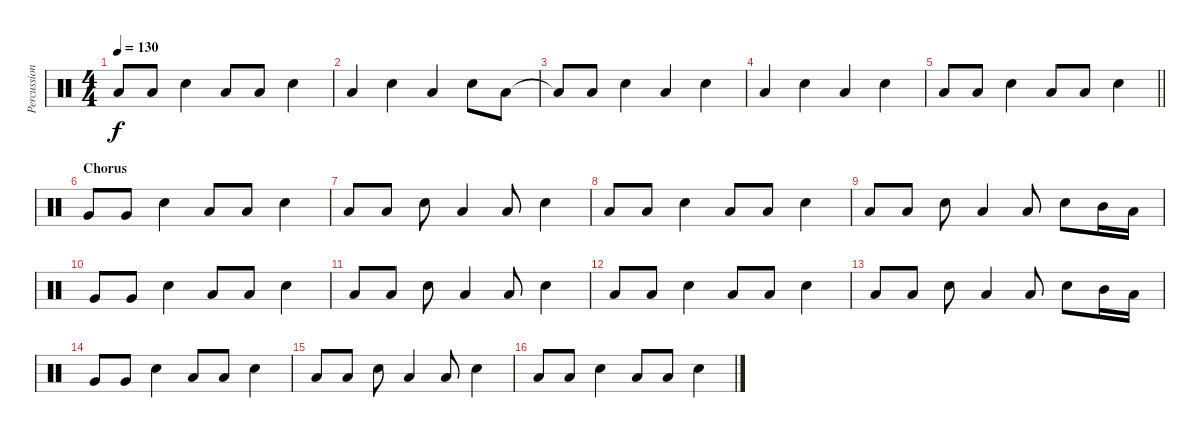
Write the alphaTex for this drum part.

\track ("Percussion 1" "Percussion") {instrument percussion}
\staff {score}
\articulation defaults
\ts (4 4)
\tempo 130
\clef neutral
\ks c "Low Floor Tom (hit)"{t}.8{dy f} "Low Floor Tom (hit)".8 "Electric Snare (hit)".4 "Low Floor Tom (hit)".8 "Low Floor Tom (hit)".8 "Electric Snare (hit)".4
|
"Low Floor Tom (hit)".4 "Electric Snare (hit)".4 "Low Floor Tom (hit)".4 "Electric Snare (hit)".8 "Low Floor Tom (hit)".8 |
"Low Floor Tom (hit)"{t}.8 "Low Floor Tom (hit)".8 "Electric Snare (hit)".4 "Low Floor Tom (hit)".4 "Electric Snare (hit)".4 |
"Low Floor Tom (hit)".4 "Electric Snare (hit)".4 "Low Floor Tom (hit)".4 "Electric Snare (hit)".4 |
\barLineRight lightlight "Low Floor Tom (hit)".8 "Low Floor Tom (hit)".8 "Electric Snare (hit)".4 "Low Floor Tom (hit)".8 "Low Floor Tom (hit)".8 "Electric Snare (hit)".4
|
\section ("" "Chorus")
"Very Low Tom (hit)".8 "Very Low Tom (hit)".8 "Electric Snare (hit)".4 "Low Floor Tom (hit)".8 "Low Floor Tom (hit)".8 "Electric Snare (hit)".4 |
"Low Floor Tom (hit)".8 "Low Floor Tom (hit)".8 "Electric Snare (hit)".8 "Low Floor Tom (hit)".4 "Low Floor Tom (hit)".8 "Electric Snare (hit)".4 |
"Low Floor Tom (hit)".8 "Low Floor Tom (hit)".8 "Electric Snare (hit)".4 "Low Floor Tom (hit)".8 "Low Floor Tom (hit)".8 "Electric Snare (hit)".4 |
"Low Floor Tom (hit)".8 "Low Floor Tom (hit)".8 "Electric Snare (hit)".8 "Low Floor Tom (hit)".4 "Low Floor Tom (hit)".8 "Electric Snare (hit)".8 "Mid Tom (hit)".16 "Low Tom (hit)".16 |
"Very Low Tom (hit)".8 "Very Low Tom (hit)".8 "Electric Snare (hit)".4 "Low Floor Tom (hit)".8 "Low Floor Tom (hit)".8 "Electric Snare (hit)".4 |
"Low Floor Tom (hit)".8 "Low Floor Tom (hit)".8 "Electric Snare (hit)".8 "Low Floor Tom (hit)".4 "Low Floor Tom (hit)".8 "Electric Snare (hit)".4 |
"Low Floor Tom (hit)".8 "Low Floor Tom (hit)".8 "Electric Snare (hit)".4 "Low Floor Tom (hit)".8 "Low Floor Tom (hit)".8 "Electric Snare (hit)".4 |
"Low Floor Tom (hit)".8 "Low Floor Tom (hit)".8 "Electric Snare (hit)".8 "Low Floor Tom (hit)".4 "Low Floor Tom (hit)".8 "Electric Snare (hit)".8 "Mid Tom (hit)".16 "Low Tom (hit)".16 |
"Very Low Tom (hit)".8 "Very Low Tom (hit)".8 "Electric Snare (hit)".4 "Low Floor Tom (hit)".8 "Low Floor Tom (hit)".8 "Electric Snare (hit)".4 |
"Low Floor Tom (hit)".8 "Low Floor Tom (hit)".8 "Electric Snare (hit)".8 "Low Floor Tom (hit)".4 "Low Floor Tom (hit)".8 "Electric Snare (hit)".4 |
"Low Floor Tom (hit)".8 "Low Floor Tom (hit)".8 "Electric Snare (hit)".4 "Low Floor Tom (hit)".8 "Low Floor Tom (hit)".8 "Electric Snare (hit)".4
